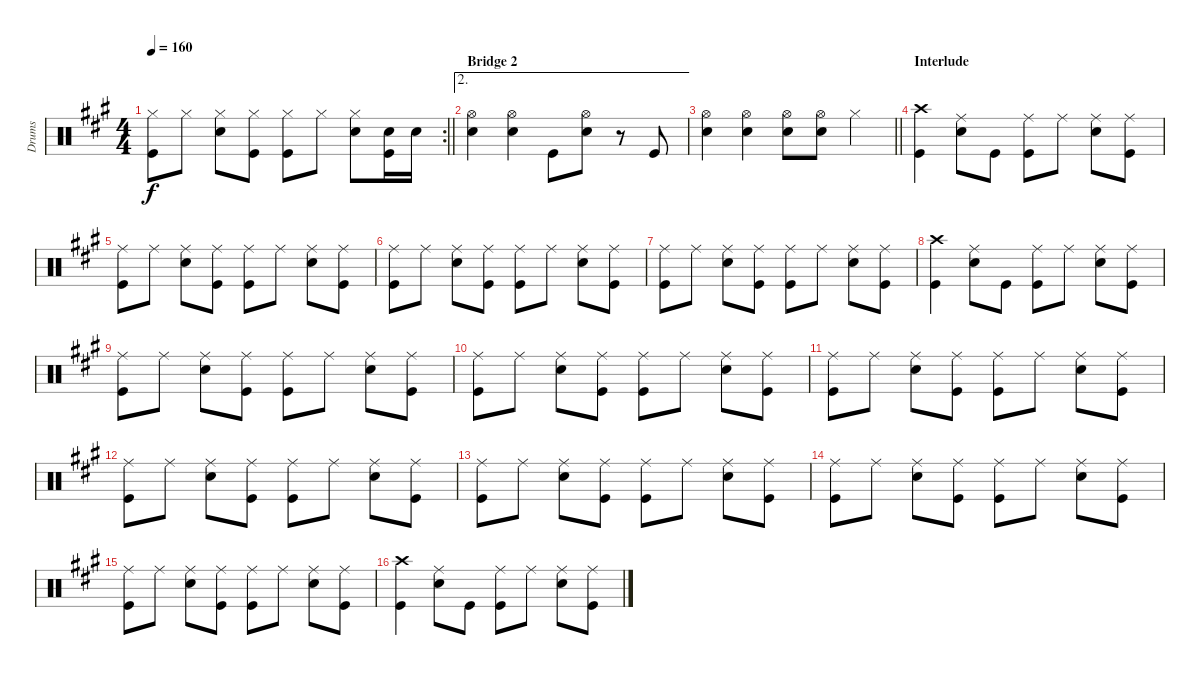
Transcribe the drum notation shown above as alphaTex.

\track ("Drums" "Drums") {instrument percussion}
\staff {score}
\articulation defaults
\rc 2
\ts (4 4)
\tempo 160
\clef neutral
\barLineRight lightlight
\ks a
("Hi-Hat (closed)" "Kick (hit)").8{dy f} "Hi-Hat (closed)".8 ("Hi-Hat (closed)" "Snare (hit) 2").8 ("Hi-Hat (closed)" "Kick (hit)").8 ("Hi-Hat (closed)" "Kick (hit)").8 "Hi-Hat (closed)".8 ("Hi-Hat (closed)" "Snare (hit) 2").8 ("Snare (hit) 2" "Kick (hit)").16 "Snare (hit) 2".16 |
\ae 2
\section ("" "Bridge 2")
("Snare (hit) 2" "Hi-Hat (open)").4 ("Snare (hit) 2" "Hi-Hat (open)").4 "Kick (hit)".8 ("Snare (hit) 2" "Hi-Hat (open)").8 r.8 "Kick (hit)".8 |
\barLineRight lightlight
("Snare (hit) 2" "Hi-Hat (open)").4 ("Snare (hit) 2" "Hi-Hat (open)").4 ("Snare (hit) 2" "Hi-Hat (open)").8 ("Snare (hit) 2" "Hi-Hat (open)").8 "Hi-Hat (closed)".4 |
\section ("" "Interlude")
("Crash high (hit)" "Kick (hit)").4 ("Ride (middle)" "Snare (hit) 2").8 "Kick (hit)".8 ("Ride (middle)" "Kick (hit)").8 "Ride (middle)".8 ("Ride (middle)" "Snare (hit) 2").8 ("Ride (middle)" "Kick (hit)").8 |
("Kick (hit)" "Ride (middle)").8 "Ride (middle)".8 ("Snare (hit) 2" "Ride (middle)").8 ("Kick (hit)" "Ride (middle)").8 ("Kick (hit)" "Ride (middle)").8 "Ride (middle)".8 ("Snare (hit) 2" "Ride (middle)").8 ("Kick (hit)" "Ride (middle)").8 |
("Kick (hit)" "Ride (middle)").8 "Ride (middle)".8 ("Snare (hit) 2" "Ride (middle)").8 ("Kick (hit)" "Ride (middle)").8 ("Kick (hit)" "Ride (middle)").8 "Ride (middle)".8 ("Snare (hit) 2" "Ride (middle)").8 ("Kick (hit)" "Ride (middle)").8 |
("Kick (hit)" "Ride (middle)").8 "Ride (middle)".8 ("Snare (hit) 2" "Ride (middle)").8 ("Kick (hit)" "Ride (middle)").8 ("Kick (hit)" "Ride (middle)").8 "Ride (middle)".8 ("Snare (hit) 2" "Ride (middle)").8 ("Kick (hit)" "Ride (middle)").8 |
("Crash high (hit)" "Kick (hit)").4 ("Ride (middle)" "Snare (hit) 2").8 "Kick (hit)".8 ("Ride (middle)" "Kick (hit)").8 "Ride (middle)".8 ("Ride (middle)" "Snare (hit) 2").8 ("Ride (middle)" "Kick (hit)").8 |
("Kick (hit)" "Ride (middle)").8 "Ride (middle)".8 ("Snare (hit) 2" "Ride (middle)").8 ("Kick (hit)" "Ride (middle)").8 ("Kick (hit)" "Ride (middle)").8 "Ride (middle)".8 ("Snare (hit) 2" "Ride (middle)").8 ("Kick (hit)" "Ride (middle)").8 |
("Kick (hit)" "Ride (middle)").8 "Ride (middle)".8 ("Snare (hit) 2" "Ride (middle)").8 ("Kick (hit)" "Ride (middle)").8 ("Kick (hit)" "Ride (middle)").8 "Ride (middle)".8 ("Snare (hit) 2" "Ride (middle)").8 ("Kick (hit)" "Ride (middle)").8 |
("Kick (hit)" "Ride (middle)").8 "Ride (middle)".8 ("Snare (hit) 2" "Ride (middle)").8 ("Kick (hit)" "Ride (middle)").8 ("Kick (hit)" "Ride (middle)").8 "Ride (middle)".8 ("Snare (hit) 2" "Ride (middle)").8 ("Kick (hit)" "Ride (middle)").8 |
("Kick (hit)" "Ride (middle)").8 "Ride (middle)".8 ("Snare (hit) 2" "Ride (middle)").8 ("Kick (hit)" "Ride (middle)").8 ("Kick (hit)" "Ride (middle)").8 "Ride (middle)".8 ("Snare (hit) 2" "Ride (middle)").8 ("Kick (hit)" "Ride (middle)").8 |
("Kick (hit)" "Ride (middle)").8 "Ride (middle)".8 ("Snare (hit) 2" "Ride (middle)").8 ("Kick (hit)" "Ride (middle)").8 ("Kick (hit)" "Ride (middle)").8 "Ride (middle)".8 ("Snare (hit) 2" "Ride (middle)").8 ("Kick (hit)" "Ride (middle)").8 |
("Kick (hit)" "Ride (middle)").8 "Ride (middle)".8 ("Snare (hit) 2" "Ride (middle)").8 ("Kick (hit)" "Ride (middle)").8 ("Kick (hit)" "Ride (middle)").8 "Ride (middle)".8 ("Snare (hit) 2" "Ride (middle)").8 ("Kick (hit)" "Ride (middle)").8 |
("Kick (hit)" "Ride (middle)").8 "Ride (middle)".8 ("Snare (hit) 2" "Ride (middle)").8 ("Kick (hit)" "Ride (middle)").8 ("Kick (hit)" "Ride (middle)").8 "Ride (middle)".8 ("Snare (hit) 2" "Ride (middle)").8 ("Kick (hit)" "Ride (middle)").8 |
("Crash high (hit)" "Kick (hit)").4 ("Ride (middle)" "Snare (hit) 2").8 "Kick (hit)".8 ("Ride (middle)" "Kick (hit)").8 "Ride (middle)".8 ("Ride (middle)" "Snare (hit) 2").8 ("Ride (middle)" "Kick (hit)").8
